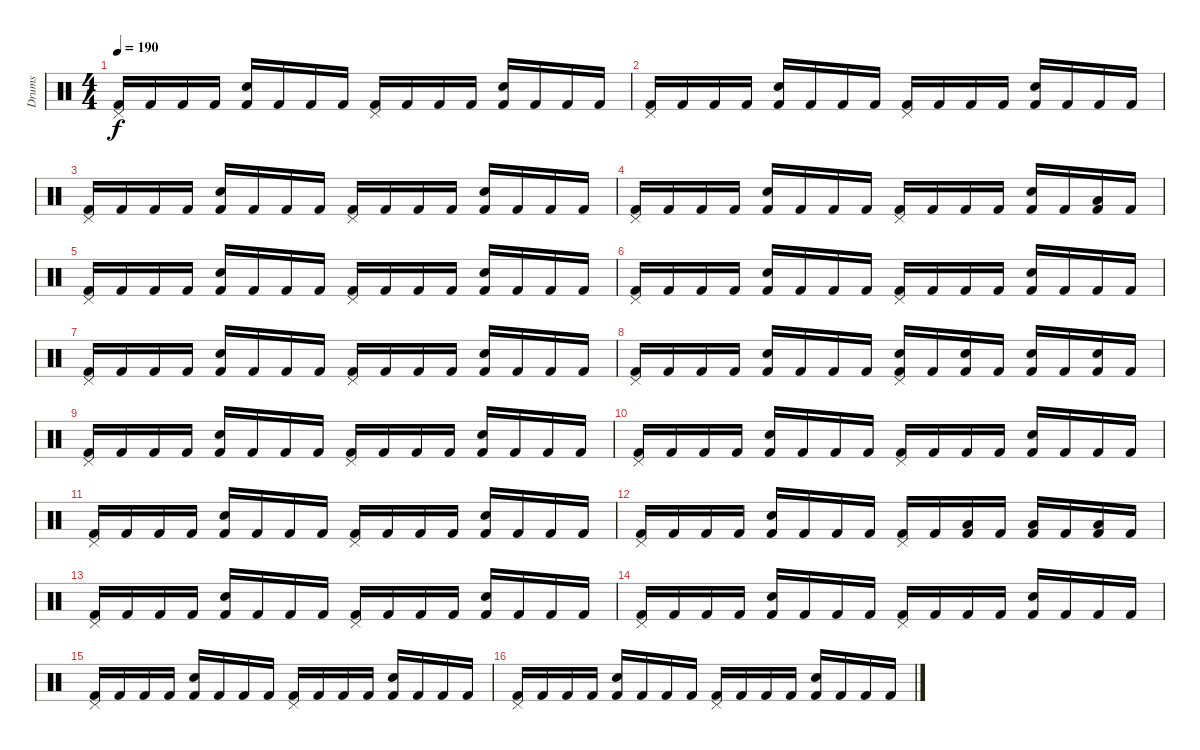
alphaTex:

\track ("Drums" "Drums") {instrument percussion}
\staff {score}
\articulation defaults
\ts (4 4)
\tempo 190
\clef neutral
\ks c
("Pedal Hi-Hat (hit)" "Kick (hit) 2").16{dy f} "Kick (hit) 2".16 "Kick (hit) 2".16 "Kick (hit) 2".16 ("Electric Snare (hit)" "Kick (hit) 2").16 "Kick (hit) 2".16 "Kick (hit) 2".16 "Kick (hit) 2".16 ("Pedal Hi-Hat (hit)" "Kick (hit) 2").16 "Kick (hit) 2".16 "Kick (hit) 2".16 "Kick (hit) 2".16 ("Electric Snare (hit)" "Kick (hit) 2").16 "Kick (hit) 2".16 "Kick (hit) 2".16 "Kick (hit) 2".16 |
("Pedal Hi-Hat (hit)" "Kick (hit) 2").16 "Kick (hit) 2".16 "Kick (hit) 2".16 "Kick (hit) 2".16 ("Electric Snare (hit)" "Kick (hit) 2").16 "Kick (hit) 2".16 "Kick (hit) 2".16 "Kick (hit) 2".16 ("Pedal Hi-Hat (hit)" "Kick (hit) 2").16 "Kick (hit) 2".16 "Kick (hit) 2".16 "Kick (hit) 2".16 ("Electric Snare (hit)" "Kick (hit) 2").16 "Kick (hit) 2".16 "Kick (hit) 2".16 "Kick (hit) 2".16 |
("Pedal Hi-Hat (hit)" "Kick (hit) 2").16 "Kick (hit) 2".16 "Kick (hit) 2".16 "Kick (hit) 2".16 ("Electric Snare (hit)" "Kick (hit) 2").16 "Kick (hit) 2".16 "Kick (hit) 2".16 "Kick (hit) 2".16 ("Pedal Hi-Hat (hit)" "Kick (hit) 2").16 "Kick (hit) 2".16 "Kick (hit) 2".16 "Kick (hit) 2".16 ("Electric Snare (hit)" "Kick (hit) 2").16 "Kick (hit) 2".16 "Kick (hit) 2".16 "Kick (hit) 2".16 |
("Pedal Hi-Hat (hit)" "Kick (hit) 2").16 "Kick (hit) 2".16 "Kick (hit) 2".16 "Kick (hit) 2".16 ("Electric Snare (hit)" "Kick (hit) 2").16 "Kick (hit) 2".16 "Kick (hit) 2".16 "Kick (hit) 2".16 ("Pedal Hi-Hat (hit)" "Kick (hit) 2").16 "Kick (hit) 2".16 "Kick (hit) 2".16 "Kick (hit) 2".16 ("Electric Snare (hit)" "Kick (hit) 2").16 "Kick (hit) 2".16 ("Low Tom (hit)" "Kick (hit) 2").16 "Kick (hit) 2".16 |
("Pedal Hi-Hat (hit)" "Kick (hit) 2").16 "Kick (hit) 2".16 "Kick (hit) 2".16 "Kick (hit) 2".16 ("Electric Snare (hit)" "Kick (hit) 2").16 "Kick (hit) 2".16 "Kick (hit) 2".16 "Kick (hit) 2".16 ("Pedal Hi-Hat (hit)" "Kick (hit) 2").16 "Kick (hit) 2".16 "Kick (hit) 2".16 "Kick (hit) 2".16 ("Electric Snare (hit)" "Kick (hit) 2").16 "Kick (hit) 2".16 "Kick (hit) 2".16 "Kick (hit) 2".16 |
("Pedal Hi-Hat (hit)" "Kick (hit) 2").16 "Kick (hit) 2".16 "Kick (hit) 2".16 "Kick (hit) 2".16 ("Electric Snare (hit)" "Kick (hit) 2").16 "Kick (hit) 2".16 "Kick (hit) 2".16 "Kick (hit) 2".16 ("Pedal Hi-Hat (hit)" "Kick (hit) 2").16 "Kick (hit) 2".16 "Kick (hit) 2".16 "Kick (hit) 2".16 ("Electric Snare (hit)" "Kick (hit) 2").16 "Kick (hit) 2".16 "Kick (hit) 2".16 "Kick (hit) 2".16 |
("Pedal Hi-Hat (hit)" "Kick (hit) 2").16 "Kick (hit) 2".16 "Kick (hit) 2".16 "Kick (hit) 2".16 ("Electric Snare (hit)" "Kick (hit) 2").16 "Kick (hit) 2".16 "Kick (hit) 2".16 "Kick (hit) 2".16 ("Pedal Hi-Hat (hit)" "Kick (hit) 2").16 "Kick (hit) 2".16 "Kick (hit) 2".16 "Kick (hit) 2".16 ("Electric Snare (hit)" "Kick (hit) 2").16 "Kick (hit) 2".16 "Kick (hit) 2".16 "Kick (hit) 2".16 |
("Pedal Hi-Hat (hit)" "Kick (hit) 2").16 "Kick (hit) 2".16 "Kick (hit) 2".16 "Kick (hit) 2".16 ("Electric Snare (hit)" "Kick (hit) 2").16 "Kick (hit) 2".16 "Kick (hit) 2".16 "Kick (hit) 2".16 ("Pedal Hi-Hat (hit)" "Electric Snare (hit)" "Kick (hit) 2").16 "Kick (hit) 2".16 ("Electric Snare (hit)" "Kick (hit) 2").16 "Kick (hit) 2".16 ("Electric Snare (hit)" "Kick (hit) 2").16 "Kick (hit) 2".16 ("Electric Snare (hit)" "Kick (hit) 2").16 "Kick (hit) 2".16 |
("Pedal Hi-Hat (hit)" "Kick (hit) 2").16 "Kick (hit) 2".16 "Kick (hit) 2".16 "Kick (hit) 2".16 ("Electric Snare (hit)" "Kick (hit) 2").16 "Kick (hit) 2".16 "Kick (hit) 2".16 "Kick (hit) 2".16 ("Pedal Hi-Hat (hit)" "Kick (hit) 2").16 "Kick (hit) 2".16 "Kick (hit) 2".16 "Kick (hit) 2".16 ("Electric Snare (hit)" "Kick (hit) 2").16 "Kick (hit) 2".16 "Kick (hit) 2".16 "Kick (hit) 2".16 |
("Pedal Hi-Hat (hit)" "Kick (hit) 2").16 "Kick (hit) 2".16 "Kick (hit) 2".16 "Kick (hit) 2".16 ("Electric Snare (hit)" "Kick (hit) 2").16 "Kick (hit) 2".16 "Kick (hit) 2".16 "Kick (hit) 2".16 ("Pedal Hi-Hat (hit)" "Kick (hit) 2").16 "Kick (hit) 2".16 "Kick (hit) 2".16 "Kick (hit) 2".16 ("Electric Snare (hit)" "Kick (hit) 2").16 "Kick (hit) 2".16 "Kick (hit) 2".16 "Kick (hit) 2".16 |
("Pedal Hi-Hat (hit)" "Kick (hit) 2").16 "Kick (hit) 2".16 "Kick (hit) 2".16 "Kick (hit) 2".16 ("Electric Snare (hit)" "Kick (hit) 2").16 "Kick (hit) 2".16 "Kick (hit) 2".16 "Kick (hit) 2".16 ("Pedal Hi-Hat (hit)" "Kick (hit) 2").16 "Kick (hit) 2".16 "Kick (hit) 2".16 "Kick (hit) 2".16 ("Electric Snare (hit)" "Kick (hit) 2").16 "Kick (hit) 2".16 "Kick (hit) 2".16 "Kick (hit) 2".16 |
("Pedal Hi-Hat (hit)" "Kick (hit) 2").16 "Kick (hit) 2".16 "Kick (hit) 2".16 "Kick (hit) 2".16 ("Electric Snare (hit)" "Kick (hit) 2").16 "Kick (hit) 2".16 "Kick (hit) 2".16 "Kick (hit) 2".16 ("Pedal Hi-Hat (hit)" "Kick (hit) 2").16 "Kick (hit) 2".16 ("Low Tom (hit)" "Kick (hit) 2").16 "Kick (hit) 2".16 ("Low Tom (hit)" "Kick (hit) 2").16 "Kick (hit) 2".16 ("Low Tom (hit)" "Kick (hit) 2").16 "Kick (hit) 2".16 |
("Pedal Hi-Hat (hit)" "Kick (hit) 2").16 "Kick (hit) 2".16 "Kick (hit) 2".16 "Kick (hit) 2".16 ("Electric Snare (hit)" "Kick (hit) 2").16 "Kick (hit) 2".16 "Kick (hit) 2".16 "Kick (hit) 2".16 ("Pedal Hi-Hat (hit)" "Kick (hit) 2").16 "Kick (hit) 2".16 "Kick (hit) 2".16 "Kick (hit) 2".16 ("Electric Snare (hit)" "Kick (hit) 2").16 "Kick (hit) 2".16 "Kick (hit) 2".16 "Kick (hit) 2".16 |
("Pedal Hi-Hat (hit)" "Kick (hit) 2").16 "Kick (hit) 2".16 "Kick (hit) 2".16 "Kick (hit) 2".16 ("Electric Snare (hit)" "Kick (hit) 2").16 "Kick (hit) 2".16 "Kick (hit) 2".16 "Kick (hit) 2".16 ("Pedal Hi-Hat (hit)" "Kick (hit) 2").16 "Kick (hit) 2".16 "Kick (hit) 2".16 "Kick (hit) 2".16 ("Electric Snare (hit)" "Kick (hit) 2").16 "Kick (hit) 2".16 "Kick (hit) 2".16 "Kick (hit) 2".16 |
("Pedal Hi-Hat (hit)" "Kick (hit) 2").16 "Kick (hit) 2".16 "Kick (hit) 2".16 "Kick (hit) 2".16 ("Electric Snare (hit)" "Kick (hit) 2").16 "Kick (hit) 2".16 "Kick (hit) 2".16 "Kick (hit) 2".16 ("Pedal Hi-Hat (hit)" "Kick (hit) 2").16 "Kick (hit) 2".16 "Kick (hit) 2".16 "Kick (hit) 2".16 ("Electric Snare (hit)" "Kick (hit) 2").16 "Kick (hit) 2".16 "Kick (hit) 2".16 "Kick (hit) 2".16 |
("Pedal Hi-Hat (hit)" "Kick (hit) 2").16 "Kick (hit) 2".16 "Kick (hit) 2".16 "Kick (hit) 2".16 ("Electric Snare (hit)" "Kick (hit) 2").16 "Kick (hit) 2".16 "Kick (hit) 2".16 "Kick (hit) 2".16 ("Pedal Hi-Hat (hit)" "Kick (hit) 2").16 "Kick (hit) 2".16 "Kick (hit) 2".16 "Kick (hit) 2".16 ("Electric Snare (hit)" "Kick (hit) 2").16 "Kick (hit) 2".16 "Kick (hit) 2".16 "Kick (hit) 2".16
